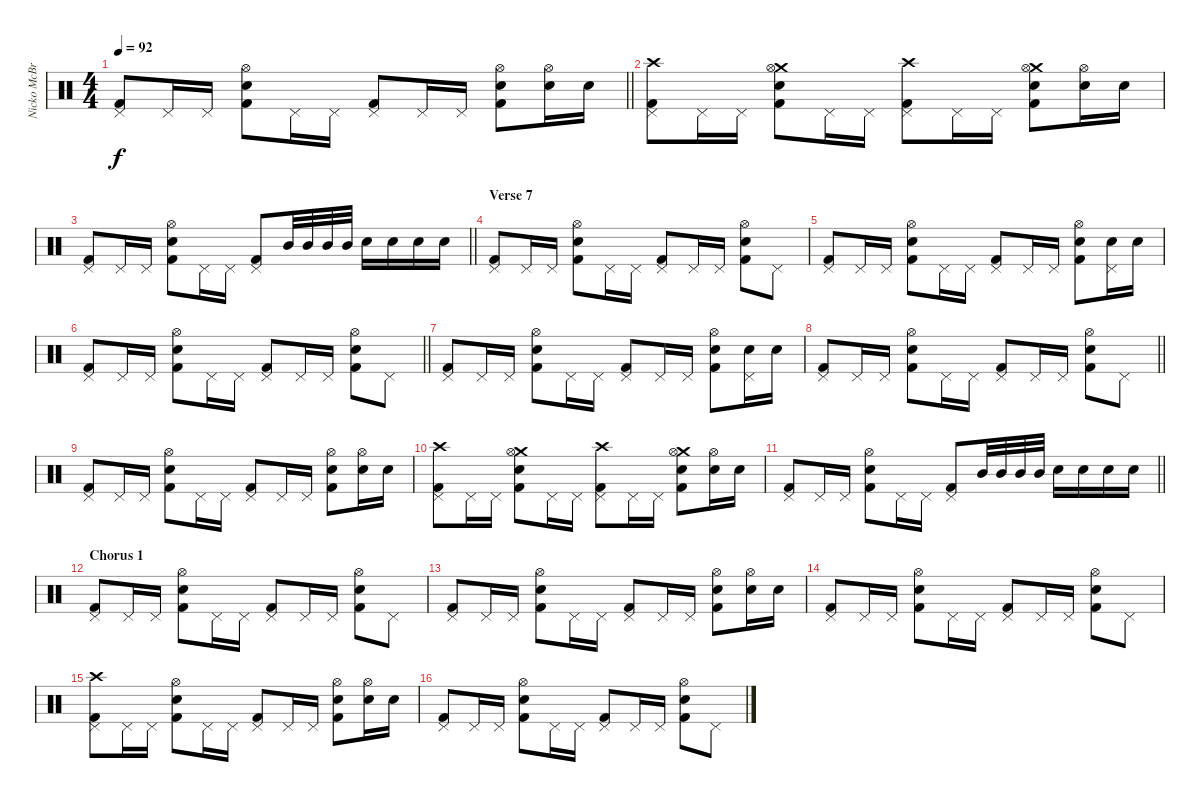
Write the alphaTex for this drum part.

\track ("Nicko McBrain" "Nicko McBr") {instrument percussion}
\staff {score}
\articulation defaults
\ts (4 4)
\tempo 92
\clef neutral
\barLineRight lightlight
\ks c
("Pedal Hi-Hat (hit)" "Kick (hit) 2").8{dy f} "Pedal Hi-Hat (hit)".16 "Pedal Hi-Hat (hit)".16 ("Electric Snare (hit)" "Hi-Hat (open)" "Kick (hit) 2").8 "Pedal Hi-Hat (hit)".16 "Pedal Hi-Hat (hit)".16 ("Pedal Hi-Hat (hit)" "Kick (hit) 2").8 "Pedal Hi-Hat (hit)".16 "Pedal Hi-Hat (hit)".16 ("Electric Snare (hit)" "Hi-Hat (open)" "Kick (hit) 2").8 ("Hi-Hat (open)" "Electric Snare (hit)").16 "Electric Snare (hit)".16 |
("Crash high (hit)" "Pedal Hi-Hat (hit)" "Kick (hit) 2").8 "Pedal Hi-Hat (hit)".16 "Pedal Hi-Hat (hit)".16 ("Crash medium (hit)" "Electric Snare (hit)" "Hi-Hat (open)" "Kick (hit) 2").8 "Pedal Hi-Hat (hit)".16 "Pedal Hi-Hat (hit)".16 ("Crash high (hit)" "Pedal Hi-Hat (hit)" "Kick (hit) 2").8 "Pedal Hi-Hat (hit)".16 "Pedal Hi-Hat (hit)".16 ("Crash medium (hit)" "Electric Snare (hit)" "Hi-Hat (open)" "Kick (hit) 2").8 ("Hi-Hat (open)" "Electric Snare (hit)").16 "Electric Snare (hit)".16 |
\barLineRight lightlight
("Pedal Hi-Hat (hit)" "Kick (hit) 2").8 "Pedal Hi-Hat (hit)".16 "Pedal Hi-Hat (hit)".16 ("Electric Snare (hit)" "Hi-Hat (open)" "Kick (hit) 2").8 "Pedal Hi-Hat (hit)".16 "Pedal Hi-Hat (hit)".16 ("Pedal Hi-Hat (hit)" "Kick (hit) 2").8 "Mid Tom (hit)".32 "Mid Tom (hit)".32 "Mid Tom (hit)".32 "Mid Tom (hit)".32 "Electric Snare (hit)".16 "Electric Snare (hit)".16 "Electric Snare (hit)".16 "Electric Snare (hit)".16 |
\section ("" "Verse 7")
("Pedal Hi-Hat (hit)" "Kick (hit) 2").8 "Pedal Hi-Hat (hit)".16 "Pedal Hi-Hat (hit)".16 ("Electric Snare (hit)" "Hi-Hat (open)" "Kick (hit) 2").8 "Pedal Hi-Hat (hit)".16 "Pedal Hi-Hat (hit)".16 ("Pedal Hi-Hat (hit)" "Kick (hit) 2").8 "Pedal Hi-Hat (hit)".16 "Pedal Hi-Hat (hit)".16 ("Electric Snare (hit)" "Hi-Hat (open)" "Kick (hit) 2").8 "Pedal Hi-Hat (hit)".8 |
("Pedal Hi-Hat (hit)" "Kick (hit) 2").8 "Pedal Hi-Hat (hit)".16 "Pedal Hi-Hat (hit)".16 ("Electric Snare (hit)" "Hi-Hat (open)" "Kick (hit) 2").8 "Pedal Hi-Hat (hit)".16 "Pedal Hi-Hat (hit)".16 ("Pedal Hi-Hat (hit)" "Kick (hit) 2").8 "Pedal Hi-Hat (hit)".16 "Pedal Hi-Hat (hit)".16 ("Electric Snare (hit)" "Hi-Hat (open)" "Kick (hit) 2").8 ("Pedal Hi-Hat (hit)" "Electric Snare (hit)").16 "Electric Snare (hit)".16 |
\barLineRight lightlight
("Pedal Hi-Hat (hit)" "Kick (hit) 2").8 "Pedal Hi-Hat (hit)".16 "Pedal Hi-Hat (hit)".16 ("Electric Snare (hit)" "Hi-Hat (open)" "Kick (hit) 2").8 "Pedal Hi-Hat (hit)".16 "Pedal Hi-Hat (hit)".16 ("Pedal Hi-Hat (hit)" "Kick (hit) 2").8 "Pedal Hi-Hat (hit)".16 "Pedal Hi-Hat (hit)".16 ("Electric Snare (hit)" "Hi-Hat (open)" "Kick (hit) 2").8 "Pedal Hi-Hat (hit)".8 |
("Pedal Hi-Hat (hit)" "Kick (hit) 2").8 "Pedal Hi-Hat (hit)".16 "Pedal Hi-Hat (hit)".16 ("Electric Snare (hit)" "Hi-Hat (open)" "Kick (hit) 2").8 "Pedal Hi-Hat (hit)".16 "Pedal Hi-Hat (hit)".16 ("Pedal Hi-Hat (hit)" "Kick (hit) 2").8 "Pedal Hi-Hat (hit)".16 "Pedal Hi-Hat (hit)".16 ("Electric Snare (hit)" "Hi-Hat (open)" "Kick (hit) 2").8 ("Pedal Hi-Hat (hit)" "Electric Snare (hit)").16 "Electric Snare (hit)".16 |
\barLineRight lightlight
("Pedal Hi-Hat (hit)" "Kick (hit) 2").8 "Pedal Hi-Hat (hit)".16 "Pedal Hi-Hat (hit)".16 ("Electric Snare (hit)" "Hi-Hat (open)" "Kick (hit) 2").8 "Pedal Hi-Hat (hit)".16 "Pedal Hi-Hat (hit)".16 ("Pedal Hi-Hat (hit)" "Kick (hit) 2").8 "Pedal Hi-Hat (hit)".16 "Pedal Hi-Hat (hit)".16 ("Electric Snare (hit)" "Hi-Hat (open)" "Kick (hit) 2").8 "Pedal Hi-Hat (hit)".8 |
("Pedal Hi-Hat (hit)" "Kick (hit) 2").8 "Pedal Hi-Hat (hit)".16 "Pedal Hi-Hat (hit)".16 ("Electric Snare (hit)" "Hi-Hat (open)" "Kick (hit) 2").8 "Pedal Hi-Hat (hit)".16 "Pedal Hi-Hat (hit)".16 ("Pedal Hi-Hat (hit)" "Kick (hit) 2").8 "Pedal Hi-Hat (hit)".16 "Pedal Hi-Hat (hit)".16 ("Electric Snare (hit)" "Hi-Hat (open)" "Kick (hit) 2").8 ("Hi-Hat (open)" "Electric Snare (hit)").16 "Electric Snare (hit)".16 |
("Crash high (hit)" "Pedal Hi-Hat (hit)" "Kick (hit) 2").8 "Pedal Hi-Hat (hit)".16 "Pedal Hi-Hat (hit)".16 ("Crash medium (hit)" "Electric Snare (hit)" "Hi-Hat (open)" "Kick (hit) 2").8 "Pedal Hi-Hat (hit)".16 "Pedal Hi-Hat (hit)".16 ("Crash high (hit)" "Pedal Hi-Hat (hit)" "Kick (hit) 2").8 "Pedal Hi-Hat (hit)".16 "Pedal Hi-Hat (hit)".16 ("Crash medium (hit)" "Electric Snare (hit)" "Hi-Hat (open)" "Kick (hit) 2").8 ("Hi-Hat (open)" "Electric Snare (hit)").16 "Electric Snare (hit)".16 |
\barLineRight lightlight
("Pedal Hi-Hat (hit)" "Kick (hit) 2").8 "Pedal Hi-Hat (hit)".16 "Pedal Hi-Hat (hit)".16 ("Electric Snare (hit)" "Hi-Hat (open)" "Kick (hit) 2").8 "Pedal Hi-Hat (hit)".16 "Pedal Hi-Hat (hit)".16 ("Pedal Hi-Hat (hit)" "Kick (hit) 2").8 "Mid Tom (hit)".32 "Mid Tom (hit)".32 "Mid Tom (hit)".32 "Mid Tom (hit)".32 "Electric Snare (hit)".16 "Electric Snare (hit)".16 "Electric Snare (hit)".16 "Electric Snare (hit)".16 |
\section ("" "Chorus 1")
("Pedal Hi-Hat (hit)" "Kick (hit) 2").8 "Pedal Hi-Hat (hit)".16 "Pedal Hi-Hat (hit)".16 ("Electric Snare (hit)" "Hi-Hat (open)" "Kick (hit) 2").8 "Pedal Hi-Hat (hit)".16 "Pedal Hi-Hat (hit)".16 ("Pedal Hi-Hat (hit)" "Kick (hit) 2").8 "Pedal Hi-Hat (hit)".16 "Pedal Hi-Hat (hit)".16 ("Electric Snare (hit)" "Hi-Hat (open)" "Kick (hit) 2").8 "Pedal Hi-Hat (hit)".8 |
("Pedal Hi-Hat (hit)" "Kick (hit) 2").8 "Pedal Hi-Hat (hit)".16 "Pedal Hi-Hat (hit)".16 ("Electric Snare (hit)" "Hi-Hat (open)" "Kick (hit) 2").8 "Pedal Hi-Hat (hit)".16 "Pedal Hi-Hat (hit)".16 ("Pedal Hi-Hat (hit)" "Kick (hit) 2").8 "Pedal Hi-Hat (hit)".16 "Pedal Hi-Hat (hit)".16 ("Electric Snare (hit)" "Hi-Hat (open)" "Kick (hit) 2").8 ("Hi-Hat (open)" "Electric Snare (hit)").16 "Electric Snare (hit)".16 |
("Pedal Hi-Hat (hit)" "Kick (hit) 2").8 "Pedal Hi-Hat (hit)".16 "Pedal Hi-Hat (hit)".16 ("Electric Snare (hit)" "Hi-Hat (open)" "Kick (hit) 2").8 "Pedal Hi-Hat (hit)".16 "Pedal Hi-Hat (hit)".16 ("Pedal Hi-Hat (hit)" "Kick (hit) 2").8 "Pedal Hi-Hat (hit)".16 "Pedal Hi-Hat (hit)".16 ("Electric Snare (hit)" "Hi-Hat (open)" "Kick (hit) 2").8 "Pedal Hi-Hat (hit)".8 |
("Crash high (hit)" "Pedal Hi-Hat (hit)" "Kick (hit) 2").8 "Pedal Hi-Hat (hit)".16 "Pedal Hi-Hat (hit)".16 ("Electric Snare (hit)" "Hi-Hat (open)" "Kick (hit) 2").8 "Pedal Hi-Hat (hit)".16 "Pedal Hi-Hat (hit)".16 ("Pedal Hi-Hat (hit)" "Kick (hit) 2").8 "Pedal Hi-Hat (hit)".16 "Pedal Hi-Hat (hit)".16 ("Electric Snare (hit)" "Hi-Hat (open)" "Kick (hit) 2").8 ("Hi-Hat (open)" "Electric Snare (hit)").16 "Electric Snare (hit)".16 |
("Pedal Hi-Hat (hit)" "Kick (hit) 2").8 "Pedal Hi-Hat (hit)".16 "Pedal Hi-Hat (hit)".16 ("Electric Snare (hit)" "Hi-Hat (open)" "Kick (hit) 2").8 "Pedal Hi-Hat (hit)".16 "Pedal Hi-Hat (hit)".16 ("Pedal Hi-Hat (hit)" "Kick (hit) 2").8 "Pedal Hi-Hat (hit)".16 "Pedal Hi-Hat (hit)".16 ("Electric Snare (hit)" "Hi-Hat (open)" "Kick (hit) 2").8 "Pedal Hi-Hat (hit)".8
